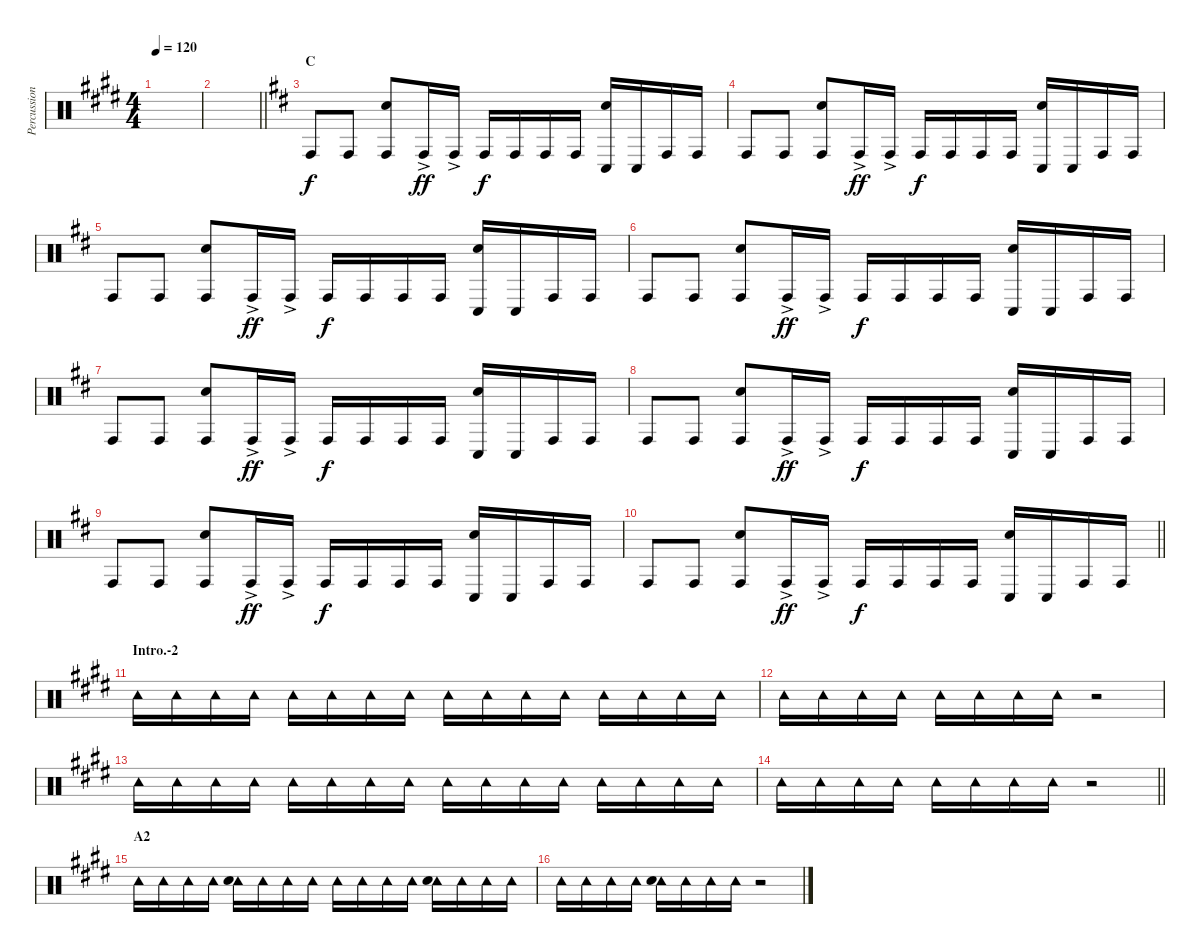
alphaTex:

\track ("Percussion" "Percussion") {instrument percussion}
\staff {score}
\articulation defaults
\ts (4 4)
\tempo 120
\clef neutral
\ks e
|
\barLineRight lightlight
|
\section ("" "C")
\ks d "Conga high (hit)".8 "Conga high (hit)".8
("Conga high (hit)" "Hand Clap (hit)").8 "Conga high (hit)"{ac}.16{dy ff} "Conga high (hit)"{ac}.16 "Conga high (hit)".16{dy f} "Conga high (hit)".16 "Conga high (hit)".16 "Conga high (hit)".16 ("Hand Clap (hit)" "Conga low (hit)").16 "Conga low (hit)".16 "Conga high (hit)".16 "Conga high (hit)".16 |
"Conga high (hit)".8 "Conga high (hit)".8 ("Conga high (hit)" "Hand Clap (hit)").8 "Conga high (hit)"{ac}.16{dy ff} "Conga high (hit)"{ac}.16 "Conga high (hit)".16{dy f} "Conga high (hit)".16 "Conga high (hit)".16 "Conga high (hit)".16 ("Hand Clap (hit)" "Conga low (hit)").16 "Conga low (hit)".16 "Conga high (hit)".16 "Conga high (hit)".16 |
"Conga high (hit)".8 "Conga high (hit)".8 ("Conga high (hit)" "Hand Clap (hit)").8 "Conga high (hit)"{ac}.16{dy ff} "Conga high (hit)"{ac}.16 "Conga high (hit)".16{dy f} "Conga high (hit)".16 "Conga high (hit)".16 "Conga high (hit)".16 ("Hand Clap (hit)" "Conga low (hit)").16 "Conga low (hit)".16 "Conga high (hit)".16 "Conga high (hit)".16 |
"Conga high (hit)".8 "Conga high (hit)".8 ("Conga high (hit)" "Hand Clap (hit)").8 "Conga high (hit)"{ac}.16{dy ff} "Conga high (hit)"{ac}.16 "Conga high (hit)".16{dy f} "Conga high (hit)".16 "Conga high (hit)".16 "Conga high (hit)".16 ("Hand Clap (hit)" "Conga low (hit)").16 "Conga low (hit)".16 "Conga high (hit)".16 "Conga high (hit)".16 |
"Conga high (hit)".8 "Conga high (hit)".8 ("Conga high (hit)" "Hand Clap (hit)").8 "Conga high (hit)"{ac}.16{dy ff} "Conga high (hit)"{ac}.16 "Conga high (hit)".16{dy f} "Conga high (hit)".16 "Conga high (hit)".16 "Conga high (hit)".16 ("Hand Clap (hit)" "Conga low (hit)").16 "Conga low (hit)".16 "Conga high (hit)".16 "Conga high (hit)".16 |
"Conga high (hit)".8 "Conga high (hit)".8 ("Conga high (hit)" "Hand Clap (hit)").8 "Conga high (hit)"{ac}.16{dy ff} "Conga high (hit)"{ac}.16 "Conga high (hit)".16{dy f} "Conga high (hit)".16 "Conga high (hit)".16 "Conga high (hit)".16 ("Hand Clap (hit)" "Conga low (hit)").16 "Conga low (hit)".16 "Conga high (hit)".16 "Conga high (hit)".16 |
"Conga high (hit)".8 "Conga high (hit)".8 ("Conga high (hit)" "Hand Clap (hit)").8 "Conga high (hit)"{ac}.16{dy ff} "Conga high (hit)"{ac}.16 "Conga high (hit)".16{dy f} "Conga high (hit)".16 "Conga high (hit)".16 "Conga high (hit)".16 ("Hand Clap (hit)" "Conga low (hit)").16 "Conga low (hit)".16 "Conga high (hit)".16 "Conga high (hit)".16 |
\barLineRight lightlight "Conga high (hit)".8 "Conga high (hit)".8
("Conga high (hit)" "Hand Clap (hit)").8 "Conga high (hit)"{ac}.16{dy ff} "Conga high (hit)"{ac}.16 "Conga high (hit)".16{dy f} "Conga high (hit)".16 "Conga high (hit)".16 "Conga high (hit)".16 ("Hand Clap (hit)" "Conga low (hit)").16 "Conga low (hit)".16 "Conga high (hit)".16 "Conga high (hit)".16 |
\section ("" "Intro.-2")
\ks e "Tambourine (hit)".16 "Tambourine (hit)".16 "Tambourine (hit)".16 "Tambourine (hit)".16 "Tambourine (hit)".16 "Tambourine (hit)".16 "Tambourine (hit)".16 "Tambourine (hit)".16 "Tambourine (hit)".16 "Tambourine (hit)".16 "Tambourine (hit)".16 "Tambourine (hit)".16 "Tambourine (hit)".16 "Tambourine (hit)".16 "Tambourine (hit)".16 "Tambourine (hit)".16
|
"Tambourine (hit)".16 "Tambourine (hit)".16 "Tambourine (hit)".16 "Tambourine (hit)".16 "Tambourine (hit)".16 "Tambourine (hit)".16 "Tambourine (hit)".16 "Tambourine (hit)".16 r.2 |
"Tambourine (hit)".16 "Tambourine (hit)".16 "Tambourine (hit)".16 "Tambourine (hit)".16 "Tambourine (hit)".16 "Tambourine (hit)".16 "Tambourine (hit)".16 "Tambourine (hit)".16 "Tambourine (hit)".16 "Tambourine (hit)".16 "Tambourine (hit)".16 "Tambourine (hit)".16 "Tambourine (hit)".16 "Tambourine (hit)".16 "Tambourine (hit)".16 "Tambourine (hit)".16 |
\barLineRight lightlight "Tambourine (hit)".16 "Tambourine (hit)".16 "Tambourine (hit)".16 "Tambourine (hit)".16 "Tambourine (hit)".16 "Tambourine (hit)".16 "Tambourine (hit)".16 "Tambourine (hit)".16
r.2 |
\section ("" "A2")
"Tambourine (hit)".16 "Tambourine (hit)".16 "Tambourine (hit)".16 "Tambourine (hit)".16 ("Tambourine (hit)" "Hand Clap (hit)").16 "Tambourine (hit)".16 "Tambourine (hit)".16 "Tambourine (hit)".16 "Tambourine (hit)".16 "Tambourine (hit)".16 "Tambourine (hit)".16 "Tambourine (hit)".16 ("Tambourine (hit)" "Hand Clap (hit)").16 "Tambourine (hit)".16 "Tambourine (hit)".16 "Tambourine (hit)".16 |
"Tambourine (hit)".16 "Tambourine (hit)".16 "Tambourine (hit)".16 "Tambourine (hit)".16 ("Tambourine (hit)" "Hand Clap (hit)").16 "Tambourine (hit)".16 "Tambourine (hit)".16 "Tambourine (hit)".16 r.2
